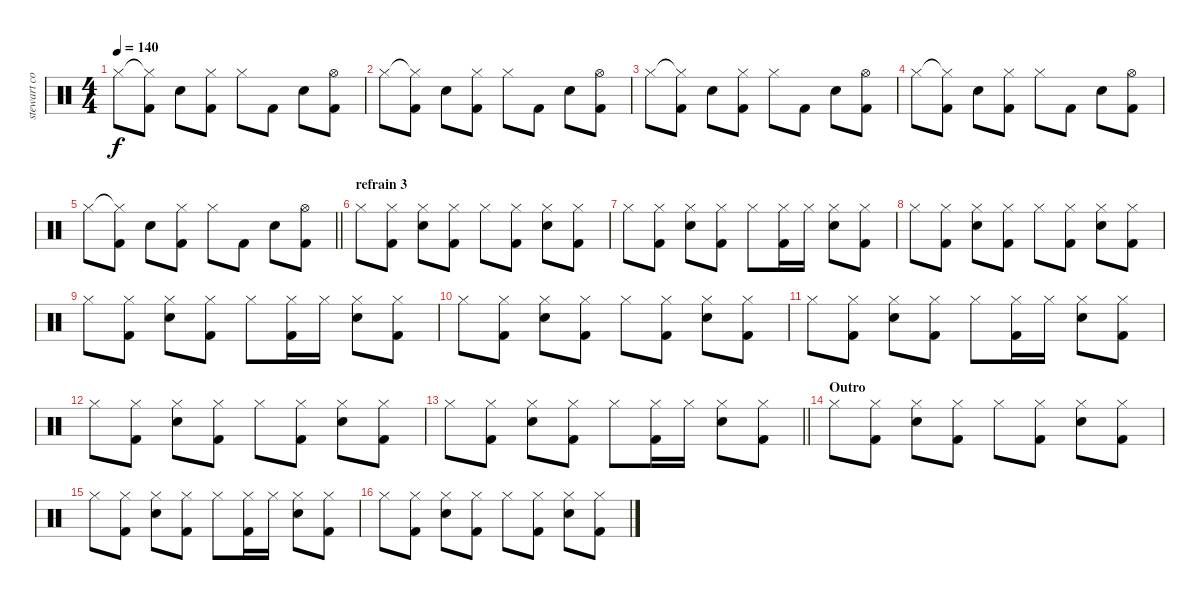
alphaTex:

\track ("stewart copeland" "stewart co") {instrument percussion}
\staff {score}
\articulation defaults
\ts (4 4)
\tempo 140
\clef neutral
\ks c "Hi-Hat (closed)".8{dy f}
("Hi-Hat (closed)"{t} "Kick (hit) 2").8 "Snare (hit) 2".8 ("Hi-Hat (closed)" "Kick (hit) 2").8 "Hi-Hat (closed)".8 "Kick (hit) 2".8 "Snare (hit) 2".8 ("Hi-Hat (open)" "Kick (hit) 2").8 |
"Hi-Hat (closed)".8 ("Hi-Hat (closed)"{t} "Kick (hit) 2").8 "Snare (hit) 2".8 ("Hi-Hat (closed)" "Kick (hit) 2").8 "Hi-Hat (closed)".8 "Kick (hit) 2".8 "Snare (hit) 2".8 ("Hi-Hat (open)" "Kick (hit) 2").8 |
"Hi-Hat (closed)".8 ("Hi-Hat (closed)"{t} "Kick (hit) 2").8 "Snare (hit) 2".8 ("Hi-Hat (closed)" "Kick (hit) 2").8 "Hi-Hat (closed)".8 "Kick (hit) 2".8 "Snare (hit) 2".8 ("Hi-Hat (open)" "Kick (hit) 2").8 |
"Hi-Hat (closed)".8 ("Hi-Hat (closed)"{t} "Kick (hit) 2").8 "Snare (hit) 2".8 ("Hi-Hat (closed)" "Kick (hit) 2").8 "Hi-Hat (closed)".8 "Kick (hit) 2".8 "Snare (hit) 2".8 ("Hi-Hat (open)" "Kick (hit) 2").8 |
\barLineRight lightlight "Hi-Hat (closed)".8
("Hi-Hat (closed)"{t} "Kick (hit) 2").8 "Snare (hit) 2".8 ("Hi-Hat (closed)" "Kick (hit) 2").8 "Hi-Hat (closed)".8 "Kick (hit) 2".8 "Snare (hit) 2".8 ("Hi-Hat (open)" "Kick (hit) 2").8 |
\section ("" "refrain 3")
"Hi-Hat (closed)".8 ("Hi-Hat (closed)" "Kick (hit) 2").8 ("Hi-Hat (closed)" "Snare (hit) 2").8 ("Hi-Hat (closed)" "Kick (hit) 2").8 "Hi-Hat (closed)".8 ("Hi-Hat (closed)" "Kick (hit) 2").8 ("Hi-Hat (closed)" "Snare (hit) 2").8 ("Hi-Hat (closed)" "Kick (hit) 2").8 |
"Hi-Hat (closed)".8 ("Hi-Hat (closed)" "Kick (hit) 2").8 ("Hi-Hat (closed)" "Snare (hit) 2").8 ("Hi-Hat (closed)" "Kick (hit) 2").8 "Hi-Hat (closed)".8 ("Hi-Hat (closed)" "Kick (hit) 2").16 "Hi-Hat (closed)".16 ("Hi-Hat (closed)" "Snare (hit) 2").8 ("Hi-Hat (closed)" "Kick (hit) 2").8 |
"Hi-Hat (closed)".8 ("Hi-Hat (closed)" "Kick (hit) 2").8 ("Hi-Hat (closed)" "Snare (hit) 2").8 ("Hi-Hat (closed)" "Kick (hit) 2").8 "Hi-Hat (closed)".8 ("Hi-Hat (closed)" "Kick (hit) 2").8 ("Hi-Hat (closed)" "Snare (hit) 2").8 ("Hi-Hat (closed)" "Kick (hit) 2").8 |
"Hi-Hat (closed)".8 ("Hi-Hat (closed)" "Kick (hit) 2").8 ("Hi-Hat (closed)" "Snare (hit) 2").8 ("Hi-Hat (closed)" "Kick (hit) 2").8 "Hi-Hat (closed)".8 ("Hi-Hat (closed)" "Kick (hit) 2").16 "Hi-Hat (closed)".16 ("Hi-Hat (closed)" "Snare (hit) 2").8 ("Hi-Hat (closed)" "Kick (hit) 2").8 |
"Hi-Hat (closed)".8 ("Hi-Hat (closed)" "Kick (hit) 2").8 ("Hi-Hat (closed)" "Snare (hit) 2").8 ("Hi-Hat (closed)" "Kick (hit) 2").8 "Hi-Hat (closed)".8 ("Hi-Hat (closed)" "Kick (hit) 2").8 ("Hi-Hat (closed)" "Snare (hit) 2").8 ("Hi-Hat (closed)" "Kick (hit) 2").8 |
"Hi-Hat (closed)".8 ("Hi-Hat (closed)" "Kick (hit) 2").8 ("Hi-Hat (closed)" "Snare (hit) 2").8 ("Hi-Hat (closed)" "Kick (hit) 2").8 "Hi-Hat (closed)".8 ("Hi-Hat (closed)" "Kick (hit) 2").16 "Hi-Hat (closed)".16 ("Hi-Hat (closed)" "Snare (hit) 2").8 ("Hi-Hat (closed)" "Kick (hit) 2").8 |
"Hi-Hat (closed)".8 ("Hi-Hat (closed)" "Kick (hit) 2").8 ("Hi-Hat (closed)" "Snare (hit) 2").8 ("Hi-Hat (closed)" "Kick (hit) 2").8 "Hi-Hat (closed)".8 ("Hi-Hat (closed)" "Kick (hit) 2").8 ("Hi-Hat (closed)" "Snare (hit) 2").8 ("Hi-Hat (closed)" "Kick (hit) 2").8 |
\barLineRight lightlight "Hi-Hat (closed)".8
("Hi-Hat (closed)" "Kick (hit) 2").8 ("Hi-Hat (closed)" "Snare (hit) 2").8 ("Hi-Hat (closed)" "Kick (hit) 2").8 "Hi-Hat (closed)".8 ("Hi-Hat (closed)" "Kick (hit) 2").16 "Hi-Hat (closed)".16 ("Hi-Hat (closed)" "Snare (hit) 2").8 ("Hi-Hat (closed)" "Kick (hit) 2").8 |
\section ("" "Outro")
"Hi-Hat (closed)".8 ("Hi-Hat (closed)" "Kick (hit) 2").8 ("Hi-Hat (closed)" "Snare (hit) 2").8 ("Hi-Hat (closed)" "Kick (hit) 2").8 "Hi-Hat (closed)".8 ("Hi-Hat (closed)" "Kick (hit) 2").8 ("Hi-Hat (closed)" "Snare (hit) 2").8 ("Hi-Hat (closed)" "Kick (hit) 2").8 |
"Hi-Hat (closed)".8 ("Hi-Hat (closed)" "Kick (hit) 2").8 ("Hi-Hat (closed)" "Snare (hit) 2").8 ("Hi-Hat (closed)" "Kick (hit) 2").8 "Hi-Hat (closed)".8 ("Hi-Hat (closed)" "Kick (hit) 2").16 "Hi-Hat (closed)".16 ("Hi-Hat (closed)" "Snare (hit) 2").8 ("Hi-Hat (closed)" "Kick (hit) 2").8 |
"Hi-Hat (closed)".8 ("Hi-Hat (closed)" "Kick (hit) 2").8 ("Hi-Hat (closed)" "Snare (hit) 2").8 ("Hi-Hat (closed)" "Kick (hit) 2").8 "Hi-Hat (closed)".8 ("Hi-Hat (closed)" "Kick (hit) 2").8 ("Hi-Hat (closed)" "Snare (hit) 2").8 ("Hi-Hat (closed)" "Kick (hit) 2").8
